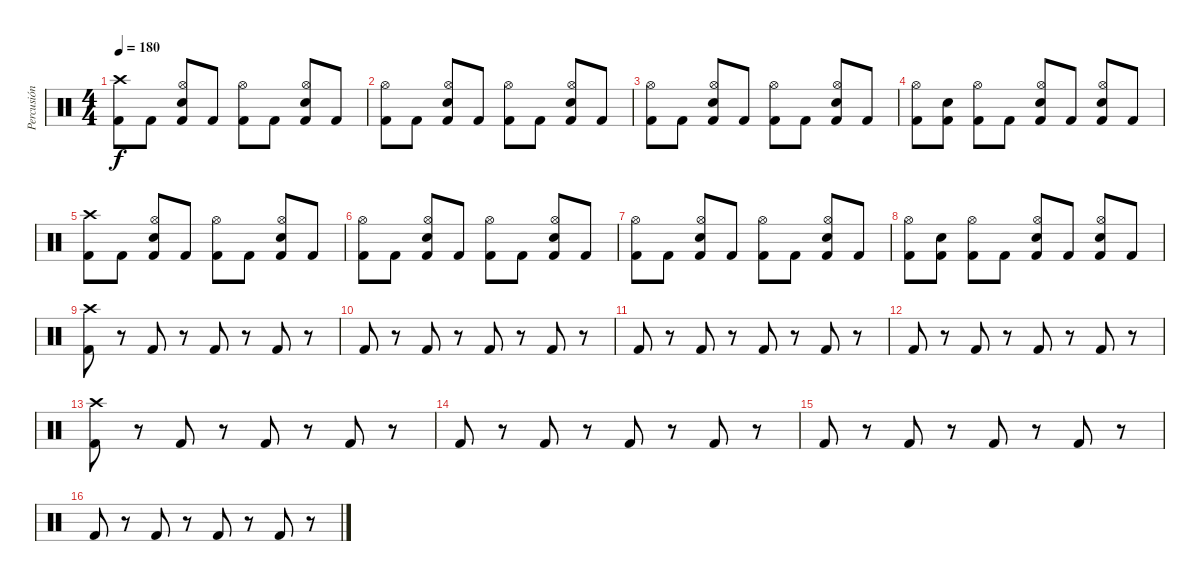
\track ("Percusión" "Percusión") {instrument percussion}
\staff {score}
\articulation defaults
\ts (4 4)
\tempo 180
\clef neutral
\ks c
("Crash high (hit)" "Kick (hit) 2").8{dy f} "Kick (hit) 2".8 ("Hi-Hat (open)" "Electric Snare (hit)" "Kick (hit) 2").8 "Kick (hit) 2".8 ("Hi-Hat (open)" "Kick (hit) 2").8 "Kick (hit) 2".8 ("Hi-Hat (open)" "Electric Snare (hit)" "Kick (hit) 2").8 "Kick (hit) 2".8 |
("Hi-Hat (open)" "Kick (hit) 2").8 "Kick (hit) 2".8 ("Hi-Hat (open)" "Electric Snare (hit)" "Kick (hit) 2").8 "Kick (hit) 2".8 ("Hi-Hat (open)" "Kick (hit) 2").8 "Kick (hit) 2".8 ("Hi-Hat (open)" "Electric Snare (hit)" "Kick (hit) 2").8 "Kick (hit) 2".8 |
("Hi-Hat (open)" "Kick (hit) 2").8 "Kick (hit) 2".8 ("Hi-Hat (open)" "Electric Snare (hit)" "Kick (hit) 2").8 "Kick (hit) 2".8 ("Hi-Hat (open)" "Kick (hit) 2").8 "Kick (hit) 2".8 ("Hi-Hat (open)" "Electric Snare (hit)" "Kick (hit) 2").8 "Kick (hit) 2".8 |
("Hi-Hat (open)" "Kick (hit) 2").8 ("Electric Snare (hit)" "Kick (hit) 2").8 ("Hi-Hat (open)" "Kick (hit) 2").8 "Kick (hit) 2".8 ("Hi-Hat (open)" "Electric Snare (hit)" "Kick (hit) 2").8 "Kick (hit) 2".8 ("Hi-Hat (open)" "Electric Snare (hit)" "Kick (hit) 2").8 "Kick (hit) 2".8 |
("Crash high (hit)" "Kick (hit) 2").8 "Kick (hit) 2".8 ("Hi-Hat (open)" "Electric Snare (hit)" "Kick (hit) 2").8 "Kick (hit) 2".8 ("Hi-Hat (open)" "Kick (hit) 2").8 "Kick (hit) 2".8 ("Hi-Hat (open)" "Electric Snare (hit)" "Kick (hit) 2").8 "Kick (hit) 2".8 |
("Hi-Hat (open)" "Kick (hit) 2").8 "Kick (hit) 2".8 ("Hi-Hat (open)" "Electric Snare (hit)" "Kick (hit) 2").8 "Kick (hit) 2".8 ("Hi-Hat (open)" "Kick (hit) 2").8 "Kick (hit) 2".8 ("Hi-Hat (open)" "Electric Snare (hit)" "Kick (hit) 2").8 "Kick (hit) 2".8 |
("Hi-Hat (open)" "Kick (hit) 2").8 "Kick (hit) 2".8 ("Hi-Hat (open)" "Electric Snare (hit)" "Kick (hit) 2").8 "Kick (hit) 2".8 ("Hi-Hat (open)" "Kick (hit) 2").8 "Kick (hit) 2".8 ("Hi-Hat (open)" "Electric Snare (hit)" "Kick (hit) 2").8 "Kick (hit) 2".8 |
("Hi-Hat (open)" "Kick (hit) 2").8 ("Electric Snare (hit)" "Kick (hit) 2").8 ("Hi-Hat (open)" "Kick (hit) 2").8 "Kick (hit) 2".8 ("Hi-Hat (open)" "Electric Snare (hit)" "Kick (hit) 2").8 "Kick (hit) 2".8 ("Hi-Hat (open)" "Electric Snare (hit)" "Kick (hit) 2").8 "Kick (hit) 2".8 |
("Crash high (hit)" "Kick (hit) 2").8 r.8 "Kick (hit) 2".8 r.8 "Kick (hit) 2".8 r.8 "Kick (hit) 2".8 r.8 |
"Kick (hit) 2".8 r.8 "Kick (hit) 2".8 r.8 "Kick (hit) 2".8 r.8 "Kick (hit) 2".8 r.8 |
"Kick (hit) 2".8 r.8 "Kick (hit) 2".8 r.8 "Kick (hit) 2".8 r.8 "Kick (hit) 2".8 r.8 |
"Kick (hit) 2".8 r.8 "Kick (hit) 2".8 r.8 "Kick (hit) 2".8 r.8 "Kick (hit) 2".8 r.8 |
("Crash high (hit)" "Kick (hit) 2").8 r.8 "Kick (hit) 2".8 r.8 "Kick (hit) 2".8 r.8 "Kick (hit) 2".8 r.8 |
"Kick (hit) 2".8 r.8 "Kick (hit) 2".8 r.8 "Kick (hit) 2".8 r.8 "Kick (hit) 2".8 r.8 |
"Kick (hit) 2".8 r.8 "Kick (hit) 2".8 r.8 "Kick (hit) 2".8 r.8 "Kick (hit) 2".8 r.8 |
"Kick (hit) 2".8 r.8 "Kick (hit) 2".8 r.8 "Kick (hit) 2".8 r.8 "Kick (hit) 2".8 r.8
